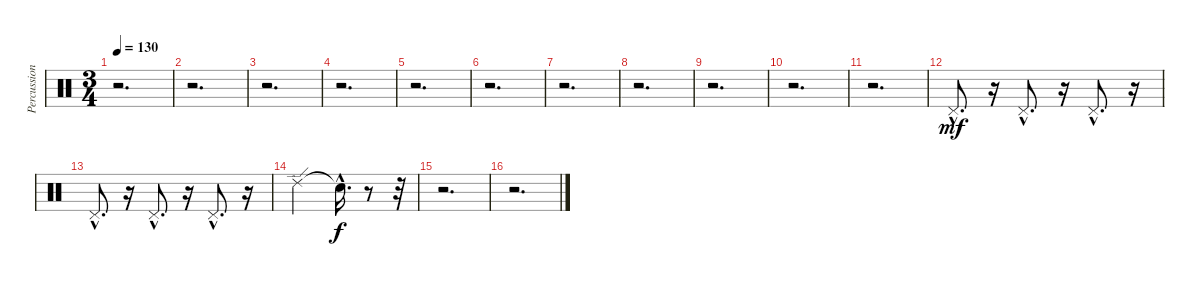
\track ("Percussion (Channel 10)" "Percussion") {instrument percussion}
\staff {score}
\articulation defaults
\ts (3 4)
\tempo 130
\clef neutral
\ks c
r.2{d dy mf} |
r.2{d} |
r.2{d} |
r.2{d} |
r.2{d} |
r.2{d} |
r.2{d} |
r.2{d} |
r.2{d} |
r.2{d} |
r.2{d} |
"Pedal Hi-Hat (hit)"{hac}.8{d} r.16 "Pedal Hi-Hat (hit)"{hac}.8{d} r.16 "Pedal Hi-Hat (hit)"{hac}.8{d} r.16 |
"Pedal Hi-Hat (hit)"{hac}.8{d} r.16 "Pedal Hi-Hat (hit)"{hac}.8{d} r.16 "Pedal Hi-Hat (hit)"{hac}.8{d} r.16 |
"Ride (edge) 2".2 "Snare (hit)"{hac t}.16{d dy f} r.8 r.32 |
r.2{d} |
r.2{d}
